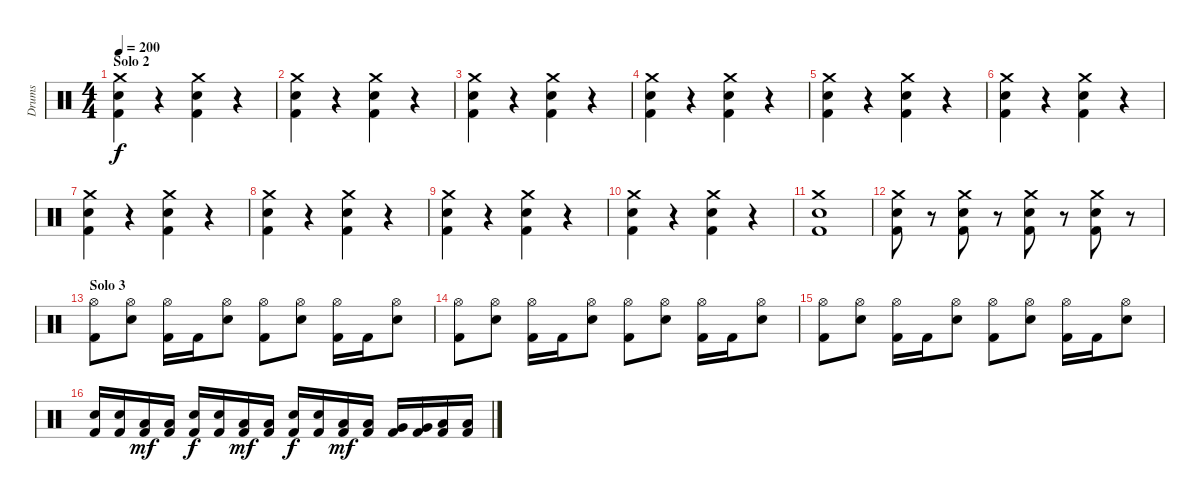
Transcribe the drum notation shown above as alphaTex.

\track ("Drums" "Drums") {instrument percussion}
\staff {score}
\articulation defaults
\ts (4 4)
\section ("" "Solo 2")
\tempo 200
\clef neutral
\ks c
("Crash medium (hit)" "Snare (hit) 2" "Kick (hit) 2").4{dy f} r.4 ("Crash medium (hit)" "Snare (hit) 2" "Kick (hit) 2").4 r.4 |
("Crash medium (hit)" "Snare (hit) 2" "Kick (hit) 2").4 r.4 ("Crash medium (hit)" "Snare (hit) 2" "Kick (hit) 2").4 r.4 |
("Crash medium (hit)" "Snare (hit) 2" "Kick (hit) 2").4 r.4 ("Crash medium (hit)" "Snare (hit) 2" "Kick (hit) 2").4 r.4 |
("Crash medium (hit)" "Snare (hit) 2" "Kick (hit) 2").4 r.4 ("Crash medium (hit)" "Snare (hit) 2" "Kick (hit) 2").4 r.4 |
("Crash medium (hit)" "Snare (hit) 2" "Kick (hit) 2").4 r.4 ("Crash medium (hit)" "Snare (hit) 2" "Kick (hit) 2").4 r.4 |
("Crash medium (hit)" "Snare (hit) 2" "Kick (hit) 2").4 r.4 ("Crash medium (hit)" "Snare (hit) 2" "Kick (hit) 2").4 r.4 |
("Crash medium (hit)" "Snare (hit) 2" "Kick (hit) 2").4 r.4 ("Crash medium (hit)" "Snare (hit) 2" "Kick (hit) 2").4 r.4 |
("Crash medium (hit)" "Snare (hit) 2" "Kick (hit) 2").4 r.4 ("Crash medium (hit)" "Snare (hit) 2" "Kick (hit) 2").4 r.4 |
("Crash medium (hit)" "Snare (hit) 2" "Kick (hit) 2").4 r.4 ("Crash medium (hit)" "Snare (hit) 2" "Kick (hit) 2").4 r.4 |
("Crash medium (hit)" "Snare (hit) 2" "Kick (hit) 2").4 r.4 ("Crash medium (hit)" "Snare (hit) 2" "Kick (hit) 2").4 r.4 |
("Crash medium (hit)" "Snare (hit) 2" "Kick (hit) 2").1 |
("Crash medium (hit)" "Snare (hit) 2" "Kick (hit) 2").8 r.8 ("Crash medium (hit)" "Snare (hit) 2" "Kick (hit) 2").8 r.8 ("Crash medium (hit)" "Snare (hit) 2" "Kick (hit) 2").8 r.8 ("Crash medium (hit)" "Snare (hit) 2" "Kick (hit) 2").8 r.8 |
\section ("" "Solo 3")
("Hi-Hat (open)" "Kick (hit) 2").8 ("Hi-Hat (open)" "Snare (hit) 2").8 ("Hi-Hat (open)" "Kick (hit) 2").16 "Kick (hit) 2".16 ("Hi-Hat (open)" "Snare (hit) 2").8 ("Hi-Hat (open)" "Kick (hit) 2").8 ("Hi-Hat (open)" "Snare (hit) 2").8 ("Hi-Hat (open)" "Kick (hit) 2").16 "Kick (hit) 2".16 ("Hi-Hat (open)" "Snare (hit) 2").8 |
("Hi-Hat (open)" "Kick (hit) 2").8 ("Hi-Hat (open)" "Snare (hit) 2").8 ("Hi-Hat (open)" "Kick (hit) 2").16 "Kick (hit) 2".16 ("Hi-Hat (open)" "Snare (hit) 2").8 ("Hi-Hat (open)" "Kick (hit) 2").8 ("Hi-Hat (open)" "Snare (hit) 2").8 ("Hi-Hat (open)" "Kick (hit) 2").16 "Kick (hit) 2".16 ("Hi-Hat (open)" "Snare (hit) 2").8 |
("Hi-Hat (open)" "Kick (hit) 2").8 ("Hi-Hat (open)" "Snare (hit) 2").8 ("Hi-Hat (open)" "Kick (hit) 2").16 "Kick (hit) 2".16 ("Hi-Hat (open)" "Snare (hit) 2").8 ("Hi-Hat (open)" "Kick (hit) 2").8 ("Hi-Hat (open)" "Snare (hit) 2").8 ("Hi-Hat (open)" "Kick (hit) 2").16 "Kick (hit) 2".16 ("Hi-Hat (open)" "Snare (hit) 2").8 |
("Snare (hit) 2" "Kick (hit) 2").16 ("Snare (hit) 2" "Kick (hit) 2").16 ("Low Floor Tom (hit)" "Kick (hit) 2").16{dy mf} ("Low Floor Tom (hit)" "Kick (hit) 2").16 ("Snare (hit) 2" "Kick (hit) 2").16{dy f} ("Snare (hit) 2" "Kick (hit) 2").16 ("Low Floor Tom (hit)" "Kick (hit) 2").16{dy mf} ("Low Floor Tom (hit)" "Kick (hit) 2").16 ("Snare (hit) 2" "Kick (hit) 2").16{dy f} ("Snare (hit) 2" "Kick (hit) 2").16 ("Low Tom (hit)" "Kick (hit) 2").16{dy mf} ("Low Tom (hit)" "Kick (hit) 2").16 ("Very Low Tom (hit)" "Kick (hit) 2").16 ("Very Low Tom (hit)" "Kick (hit) 2").16 ("Low Floor Tom (hit)" "Kick (hit) 2").16 ("Low Floor Tom (hit)" "Kick (hit) 2").16
